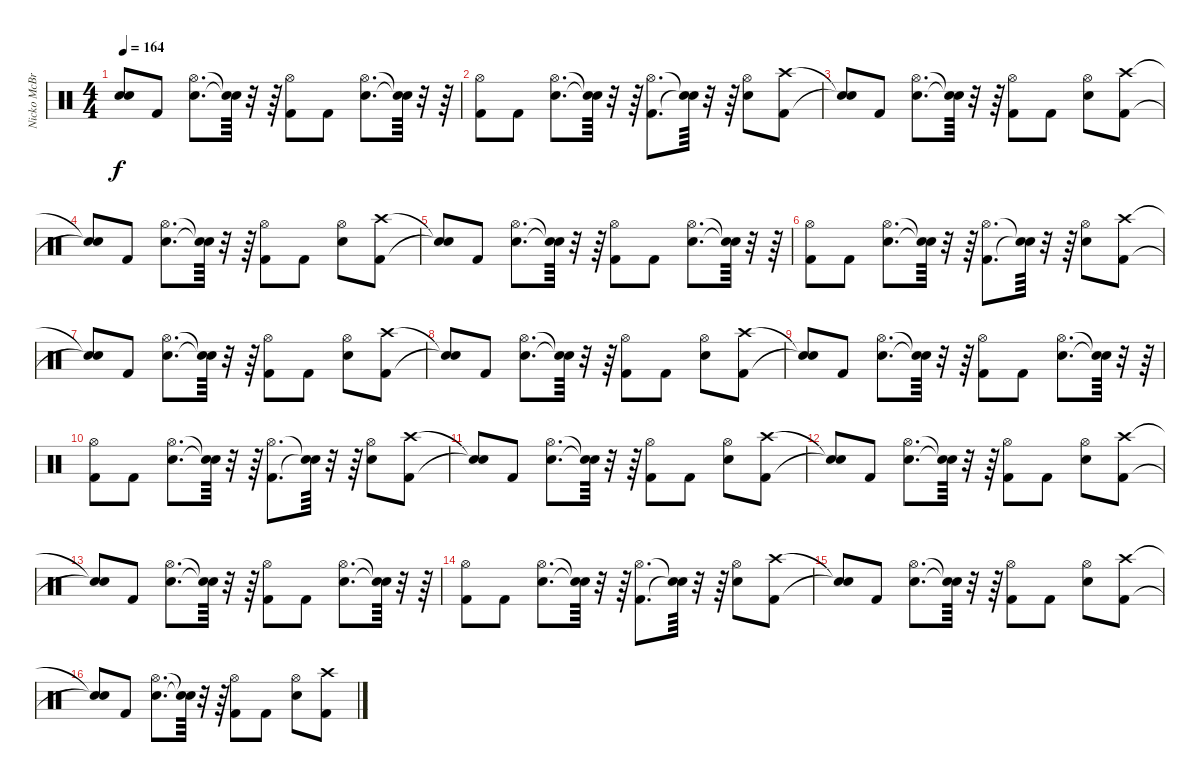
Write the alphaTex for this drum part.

\track ("Nicko McBrian (Drums)" "Nicko McBr") {instrument percussion}
\staff {score}
\articulation defaults
\ts (4 4)
\tempo 164
\clef neutral
\ks c
("Snare (hit)"{t} "Snare (hit)"{t}).8{dy f} "Kick (hit) 2".8 ("Snare (hit) 2" "Hi-Hat (open)").8{d} ("Snare (hit)"{t} "Snare (hit)"{t}).64 r.32 r.64 ("Kick (hit) 2" "Hi-Hat (open)").8 "Kick (hit) 2".8 ("Snare (hit) 2" "Hi-Hat (open)").8{d} ("Snare (hit)"{t} "Snare (hit)"{t}).64 r.32 r.64 |
("Kick (hit) 2" "Hi-Hat (open)").8 "Kick (hit) 2".8 ("Snare (hit) 2" "Hi-Hat (open)").8{d} ("Snare (hit)"{t} "Snare (hit)"{t}).64 r.32 r.64 ("Kick (hit) 2" "Hi-Hat (open)").8{d} ("Snare (hit)"{t} "Snare (hit)"{t}).64 r.32 r.64 ("Snare (hit) 2" "Hi-Hat (open)").8 ("Kick (hit) 2" "Crash high (hit)").8 |
("Snare (hit)"{t} "Snare (hit)"{t}).8 "Kick (hit) 2".8 ("Snare (hit) 2" "Hi-Hat (open)").8{d} ("Snare (hit)"{t} "Snare (hit)"{t}).64 r.32 r.64 ("Kick (hit) 2" "Hi-Hat (open)").8 "Kick (hit) 2".8 ("Snare (hit) 2" "Hi-Hat (open)").8 ("Kick (hit) 2" "Crash high (hit)").8 |
("Snare (hit)"{t} "Snare (hit)"{t}).8 "Kick (hit) 2".8 ("Snare (hit) 2" "Hi-Hat (open)").8{d} ("Snare (hit)"{t} "Snare (hit)"{t}).64 r.32 r.64 ("Kick (hit) 2" "Hi-Hat (open)").8 "Kick (hit) 2".8 ("Snare (hit) 2" "Hi-Hat (open)").8 ("Kick (hit) 2" "Crash high (hit)").8 |
("Snare (hit)"{t} "Snare (hit)"{t}).8 "Kick (hit) 2".8 ("Snare (hit) 2" "Hi-Hat (open)").8{d} ("Snare (hit)"{t} "Snare (hit)"{t}).64 r.32 r.64 ("Kick (hit) 2" "Hi-Hat (open)").8 "Kick (hit) 2".8 ("Snare (hit) 2" "Hi-Hat (open)").8{d} ("Snare (hit)"{t} "Snare (hit)"{t}).64 r.32 r.64 |
("Kick (hit) 2" "Hi-Hat (open)").8 "Kick (hit) 2".8 ("Snare (hit) 2" "Hi-Hat (open)").8{d} ("Snare (hit)"{t} "Snare (hit)"{t}).64 r.32 r.64 ("Kick (hit) 2" "Hi-Hat (open)").8{d} ("Snare (hit)"{t} "Snare (hit)"{t}).64 r.32 r.64 ("Snare (hit) 2" "Hi-Hat (open)").8 ("Kick (hit) 2" "Crash high (hit)").8 |
("Snare (hit)"{t} "Snare (hit)"{t}).8 "Kick (hit) 2".8 ("Snare (hit) 2" "Hi-Hat (open)").8{d} ("Snare (hit)"{t} "Snare (hit)"{t}).64 r.32 r.64 ("Kick (hit) 2" "Hi-Hat (open)").8 "Kick (hit) 2".8 ("Snare (hit) 2" "Hi-Hat (open)").8 ("Kick (hit) 2" "Crash high (hit)").8 |
("Snare (hit)"{t} "Snare (hit)"{t}).8 "Kick (hit) 2".8 ("Snare (hit) 2" "Hi-Hat (open)").8{d} ("Snare (hit)"{t} "Snare (hit)"{t}).64 r.32 r.64 ("Kick (hit) 2" "Hi-Hat (open)").8 "Kick (hit) 2".8 ("Snare (hit) 2" "Hi-Hat (open)").8 ("Kick (hit) 2" "Crash high (hit)").8 |
("Snare (hit)"{t} "Snare (hit)"{t}).8 "Kick (hit) 2".8 ("Snare (hit) 2" "Hi-Hat (open)").8{d} ("Snare (hit)"{t} "Snare (hit)"{t}).64 r.32 r.64 ("Kick (hit) 2" "Hi-Hat (open)").8 "Kick (hit) 2".8 ("Snare (hit) 2" "Hi-Hat (open)").8{d} ("Snare (hit)"{t} "Snare (hit)"{t}).64 r.32 r.64 |
("Kick (hit) 2" "Hi-Hat (open)").8 "Kick (hit) 2".8 ("Snare (hit) 2" "Hi-Hat (open)").8{d} ("Snare (hit)"{t} "Snare (hit)"{t}).64 r.32 r.64 ("Kick (hit) 2" "Hi-Hat (open)").8{d} ("Snare (hit)"{t} "Snare (hit)"{t}).64 r.32 r.64 ("Snare (hit) 2" "Hi-Hat (open)").8 ("Kick (hit) 2" "Crash high (hit)").8 |
("Snare (hit)"{t} "Snare (hit)"{t}).8 "Kick (hit) 2".8 ("Snare (hit) 2" "Hi-Hat (open)").8{d} ("Snare (hit)"{t} "Snare (hit)"{t}).64 r.32 r.64 ("Kick (hit) 2" "Hi-Hat (open)").8 "Kick (hit) 2".8 ("Snare (hit) 2" "Hi-Hat (open)").8 ("Kick (hit) 2" "Crash high (hit)").8 |
("Snare (hit)"{t} "Snare (hit)"{t}).8 "Kick (hit) 2".8 ("Snare (hit) 2" "Hi-Hat (open)").8{d} ("Snare (hit)"{t} "Snare (hit)"{t}).64 r.32 r.64 ("Kick (hit) 2" "Hi-Hat (open)").8 "Kick (hit) 2".8 ("Snare (hit) 2" "Hi-Hat (open)").8 ("Kick (hit) 2" "Crash high (hit)").8 |
("Snare (hit)"{t} "Snare (hit)"{t}).8 "Kick (hit) 2".8 ("Snare (hit) 2" "Hi-Hat (open)").8{d} ("Snare (hit)"{t} "Snare (hit)"{t}).64 r.32 r.64 ("Kick (hit) 2" "Hi-Hat (open)").8 "Kick (hit) 2".8 ("Snare (hit) 2" "Hi-Hat (open)").8{d} ("Snare (hit)"{t} "Snare (hit)"{t}).64 r.32 r.64 |
("Kick (hit) 2" "Hi-Hat (open)").8 "Kick (hit) 2".8 ("Snare (hit) 2" "Hi-Hat (open)").8{d} ("Snare (hit)"{t} "Snare (hit)"{t}).64 r.32 r.64 ("Kick (hit) 2" "Hi-Hat (open)").8{d} ("Snare (hit)"{t} "Snare (hit)"{t}).64 r.32 r.64 ("Snare (hit) 2" "Hi-Hat (open)").8 ("Kick (hit) 2" "Crash high (hit)").8 |
("Snare (hit)"{t} "Snare (hit)"{t}).8 "Kick (hit) 2".8 ("Snare (hit) 2" "Hi-Hat (open)").8{d} ("Snare (hit)"{t} "Snare (hit)"{t}).64 r.32 r.64 ("Kick (hit) 2" "Hi-Hat (open)").8 "Kick (hit) 2".8 ("Snare (hit) 2" "Hi-Hat (open)").8 ("Kick (hit) 2" "Crash high (hit)").8 |
("Snare (hit)"{t} "Snare (hit)"{t}).8 "Kick (hit) 2".8 ("Snare (hit) 2" "Hi-Hat (open)").8{d} ("Snare (hit)"{t} "Snare (hit)"{t}).64 r.32 r.64 ("Kick (hit) 2" "Hi-Hat (open)").8 "Kick (hit) 2".8 ("Snare (hit) 2" "Hi-Hat (open)").8 ("Kick (hit) 2" "Crash high (hit)").8
